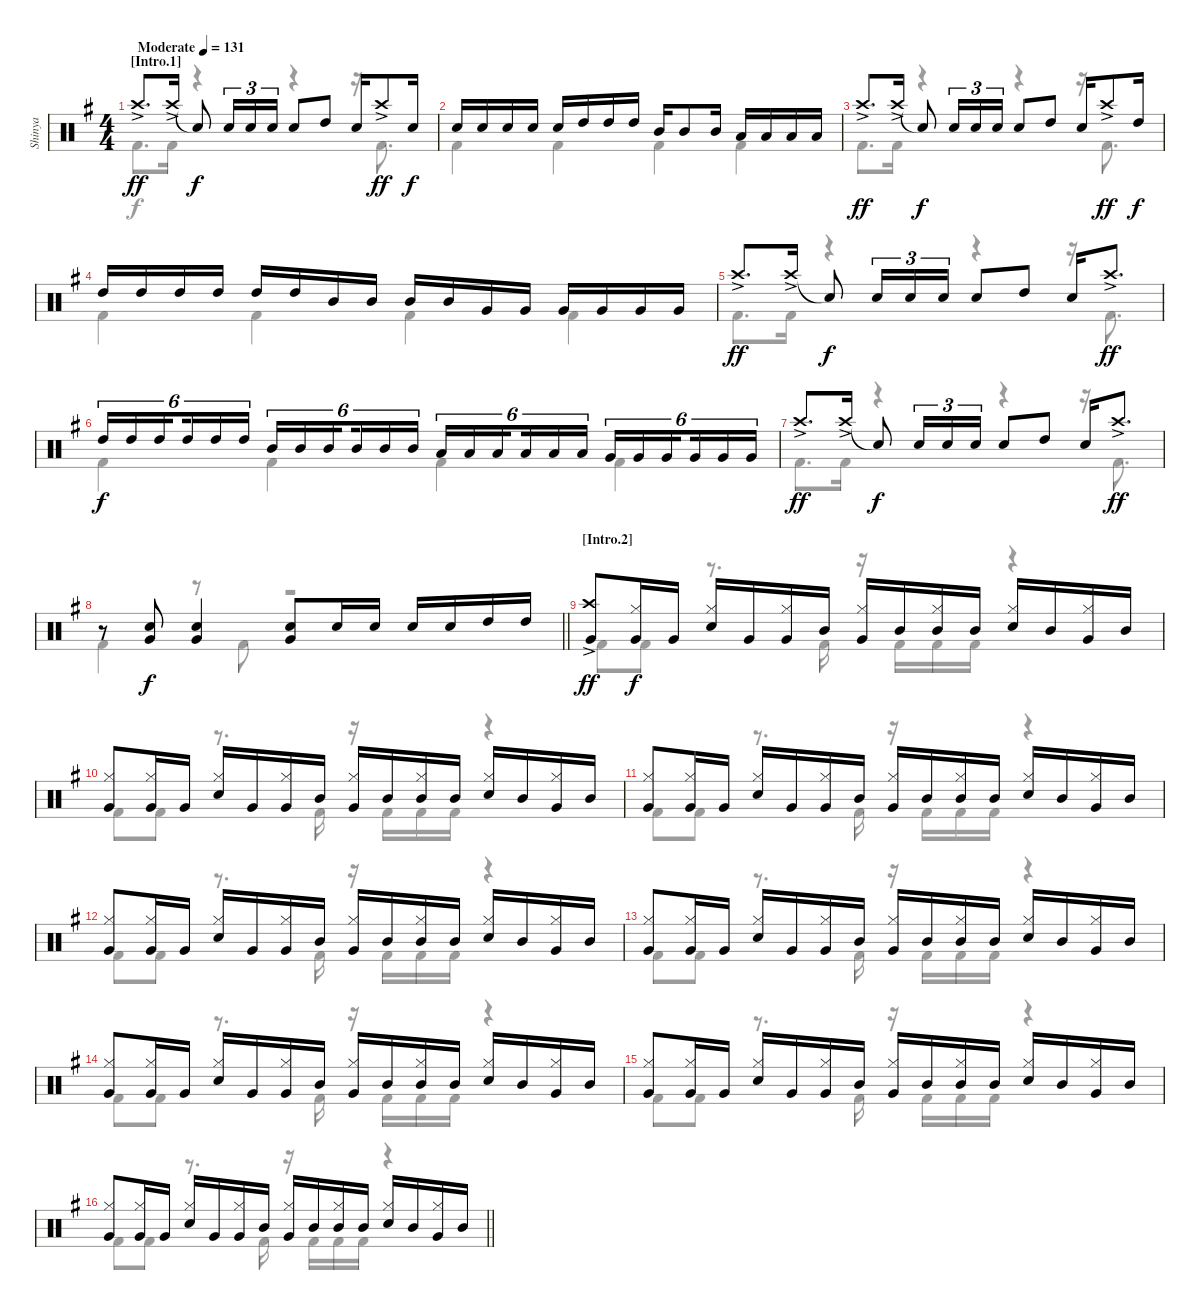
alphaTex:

\track ("Shinya" "Shinya") {instrument percussion}
\staff {score}
\articulation defaults
\voice
\ts (4 4)
\section ("" "[Intro.1]")
\tempo (131 "Moderate")
\clef neutral
\ks eminor "Crash high (hit)"{ac}.8{d dy ff} "Crash high (hit)"{ac}.16 "Snare (hit)"{t}.8{dy f} "Snare (hit) 2".16{tu (3 2)} "Snare (hit) 2".16{tu (3 2)} "Snare (hit) 2".16{tu (3 2)} "Snare (hit) 2".8 "High Tom (hit)".8 "Snare (hit) 2".16 "Crash high (hit)"{ac}.8{dy ff} "Snare (hit) 2".16{dy f}
|
"Snare (hit) 2".16 "Snare (hit) 2".16 "Snare (hit) 2".16 "Snare (hit) 2".16 "Snare (hit) 2".16 "High Tom (hit)".16 "High Tom (hit)".16 "High Tom (hit)".16 "Mid Tom (hit)".16 "Mid Tom (hit)".8 "Mid Tom (hit)".16 "Low Tom (hit)".16 "Low Tom (hit)".16 "Low Tom (hit)".16 "Low Tom (hit)".16 |
"Crash high (hit)"{ac}.8{d dy ff} "Crash high (hit)"{ac}.16 "Snare (hit)"{t}.8{dy f} "Snare (hit) 2".16{tu (3 2)} "Snare (hit) 2".16{tu (3 2)} "Snare (hit) 2".16{tu (3 2)} "Snare (hit) 2".8 "High Tom (hit)".8 "Snare (hit) 2".16 "Crash high (hit)"{ac}.8{dy ff} "High Tom (hit)".16{dy f} |
"High Tom (hit)".16 "High Tom (hit)".16 "High Tom (hit)".16 "High Tom (hit)".16 "High Tom (hit)".16 "High Tom (hit)".16 "Mid Tom (hit)".16 "Mid Tom (hit)".16 "Mid Tom (hit)".16 "Mid Tom (hit)".16 "Very Low Tom (hit)".16 "Very Low Tom (hit)".16 "Very Low Tom (hit)".16 "Very Low Tom (hit)".16 "Very Low Tom (hit)".16 "Very Low Tom (hit)".16 |
"Crash high (hit)"{ac}.8{d dy ff} "Crash high (hit)"{ac}.16 "Snare (hit)"{t}.8{dy f} "Snare (hit) 2".16{tu (3 2)} "Snare (hit) 2".16{tu (3 2)} "Snare (hit) 2".16{tu (3 2)} "Snare (hit) 2".8 "High Tom (hit)".8 "Snare (hit) 2".16 "Crash high (hit)"{ac}.8{d dy ff} |
"High Tom (hit)".16{tu (6 4) dy f} "High Tom (hit)".16{tu (6 4)} "High Tom (hit)".16{tu (6 4) beam splitsecondary} "High Tom (hit)".16{tu (6 4)} "High Tom (hit)".16{tu (6 4)} "High Tom (hit)".16{tu (6 4)} "Mid Tom (hit)".16{tu (6 4)} "Mid Tom (hit)".16{tu (6 4)} "Mid Tom (hit)".16{tu (6 4) beam splitsecondary} "Mid Tom (hit)".16{tu (6 4)} "Mid Tom (hit)".16{tu (6 4)} "Mid Tom (hit)".16{tu (6 4)} "Low Tom (hit)".16{tu (6 4)} "Low Tom (hit)".16{tu (6 4)} "Low Tom (hit)".16{tu (6 4) beam splitsecondary} "Low Tom (hit)".16{tu (6 4)} "Low Tom (hit)".16{tu (6 4)} "Low Tom (hit)".16{tu (6 4)} "Very Low Tom (hit)".16{tu (6 4)} "Very Low Tom (hit)".16{tu (6 4)} "Very Low Tom (hit)".16{tu (6 4) beam splitsecondary} "Very Low Tom (hit)".16{tu (6 4)} "Very Low Tom (hit)".16{tu (6 4)} "Very Low Tom (hit)".16{tu (6 4)} |
"Crash high (hit)"{ac}.8{d dy ff} "Crash high (hit)"{ac}.16 "Snare (hit)"{t}.8{dy f} "Snare (hit) 2".16{tu (3 2)} "Snare (hit) 2".16{tu (3 2)} "Snare (hit) 2".16{tu (3 2)} "Snare (hit) 2".8 "High Tom (hit)".8 "Snare (hit) 2".16 "Crash high (hit)"{ac}.8{d dy ff} |
\barLineRight lightlight
r.8 ("Snare (hit) 2" "Very Low Tom (hit)").8{dy f} ("Snare (hit) 2" "Very Low Tom (hit)").4 ("Snare (hit) 2" "Very Low Tom (hit)").8 "Snare (hit) 2".16 "Snare (hit) 2".16 "Snare (hit) 2".16 "Snare (hit) 2".16 "High Tom (hit)".16 "High Tom (hit)".16 |
\section ("" "[Intro.2]")
("Crash high (hit)"{ac} "Very Low Tom (hit)").8{dy ff} ("Hi-Hat (closed)" "Very Low Tom (hit)").16{dy f} "Very Low Tom (hit)".16 ("Hi-Hat (closed)" "Snare (hit) 2").16 "Very Low Tom (hit)".16 ("Hi-Hat (closed)" "Very Low Tom (hit)").16 "Mid Tom (hit)".16 ("Hi-Hat (closed)" "Very Low Tom (hit)").16 "Mid Tom (hit)".16 ("Hi-Hat (closed)" "Mid Tom (hit)").16 "Mid Tom (hit)".16 ("Hi-Hat (closed)" "Snare (hit) 2").16 "Mid Tom (hit)".16 ("Hi-Hat (closed)" "Very Low Tom (hit)").16 "Mid Tom (hit)".16 |
("Hi-Hat (closed)" "Very Low Tom (hit)").8 ("Hi-Hat (closed)" "Very Low Tom (hit)").16 "Very Low Tom (hit)".16 ("Hi-Hat (closed)" "Snare (hit) 2").16 "Very Low Tom (hit)".16 ("Hi-Hat (closed)" "Very Low Tom (hit)").16 "Mid Tom (hit)".16 ("Hi-Hat (closed)" "Very Low Tom (hit)").16 "Mid Tom (hit)".16 ("Hi-Hat (closed)" "Mid Tom (hit)").16 "Mid Tom (hit)".16 ("Hi-Hat (closed)" "Snare (hit) 2").16 "Mid Tom (hit)".16 ("Hi-Hat (closed)" "Very Low Tom (hit)").16 "Mid Tom (hit)".16 |
("Hi-Hat (closed)" "Very Low Tom (hit)").8 ("Hi-Hat (closed)" "Very Low Tom (hit)").16 "Very Low Tom (hit)".16 ("Hi-Hat (closed)" "Snare (hit) 2").16 "Very Low Tom (hit)".16 ("Hi-Hat (closed)" "Very Low Tom (hit)").16 "Mid Tom (hit)".16 ("Hi-Hat (closed)" "Very Low Tom (hit)").16 "Mid Tom (hit)".16 ("Hi-Hat (closed)" "Mid Tom (hit)").16 "Mid Tom (hit)".16 ("Hi-Hat (closed)" "Snare (hit) 2").16 "Mid Tom (hit)".16 ("Hi-Hat (closed)" "Very Low Tom (hit)").16 "Mid Tom (hit)".16 |
("Hi-Hat (closed)" "Very Low Tom (hit)").8 ("Hi-Hat (closed)" "Very Low Tom (hit)").16 "Very Low Tom (hit)".16 ("Hi-Hat (closed)" "Snare (hit) 2").16 "Very Low Tom (hit)".16 ("Hi-Hat (closed)" "Very Low Tom (hit)").16 "Mid Tom (hit)".16 ("Hi-Hat (closed)" "Very Low Tom (hit)").16 "Mid Tom (hit)".16 ("Hi-Hat (closed)" "Mid Tom (hit)").16 "Mid Tom (hit)".16 ("Hi-Hat (closed)" "Snare (hit) 2").16 "Mid Tom (hit)".16 ("Hi-Hat (closed)" "Very Low Tom (hit)").16 "Mid Tom (hit)".16 |
("Hi-Hat (closed)" "Very Low Tom (hit)").8 ("Hi-Hat (closed)" "Very Low Tom (hit)").16 "Very Low Tom (hit)".16 ("Hi-Hat (closed)" "Snare (hit) 2").16 "Very Low Tom (hit)".16 ("Hi-Hat (closed)" "Very Low Tom (hit)").16 "Mid Tom (hit)".16 ("Hi-Hat (closed)" "Very Low Tom (hit)").16 "Mid Tom (hit)".16 ("Hi-Hat (closed)" "Mid Tom (hit)").16 "Mid Tom (hit)".16 ("Hi-Hat (closed)" "Snare (hit) 2").16 "Mid Tom (hit)".16 ("Hi-Hat (closed)" "Very Low Tom (hit)").16 "Mid Tom (hit)".16 |
("Hi-Hat (closed)" "Very Low Tom (hit)").8 ("Hi-Hat (closed)" "Very Low Tom (hit)").16 "Very Low Tom (hit)".16 ("Hi-Hat (closed)" "Snare (hit) 2").16 "Very Low Tom (hit)".16 ("Hi-Hat (closed)" "Very Low Tom (hit)").16 "Mid Tom (hit)".16 ("Hi-Hat (closed)" "Very Low Tom (hit)").16 "Mid Tom (hit)".16 ("Hi-Hat (closed)" "Mid Tom (hit)").16 "Mid Tom (hit)".16 ("Hi-Hat (closed)" "Snare (hit) 2").16 "Mid Tom (hit)".16 ("Hi-Hat (closed)" "Very Low Tom (hit)").16 "Mid Tom (hit)".16 |
("Hi-Hat (closed)" "Very Low Tom (hit)").8 ("Hi-Hat (closed)" "Very Low Tom (hit)").16 "Very Low Tom (hit)".16 ("Hi-Hat (closed)" "Snare (hit) 2").16 "Very Low Tom (hit)".16 ("Hi-Hat (closed)" "Very Low Tom (hit)").16 "Mid Tom (hit)".16 ("Hi-Hat (closed)" "Very Low Tom (hit)").16 "Mid Tom (hit)".16 ("Hi-Hat (closed)" "Mid Tom (hit)").16 "Mid Tom (hit)".16 ("Hi-Hat (closed)" "Snare (hit) 2").16 "Mid Tom (hit)".16 ("Hi-Hat (closed)" "Very Low Tom (hit)").16 "Mid Tom (hit)".16 |
\barLineRight lightlight
("Hi-Hat (closed)" "Very Low Tom (hit)").8 ("Hi-Hat (closed)" "Very Low Tom (hit)").16 "Very Low Tom (hit)".16 ("Hi-Hat (closed)" "Snare (hit) 2").16 "Very Low Tom (hit)".16 ("Hi-Hat (closed)" "Very Low Tom (hit)").16 "Mid Tom (hit)".16 ("Hi-Hat (closed)" "Very Low Tom (hit)").16 "Mid Tom (hit)".16 ("Hi-Hat (closed)" "Mid Tom (hit)").16 "Mid Tom (hit)".16 ("Hi-Hat (closed)" "Snare (hit) 2").16 "Mid Tom (hit)".16 ("Hi-Hat (closed)" "Very Low Tom (hit)").16 "Mid Tom (hit)".16
\voice
\clef neutral
\ottava regular
\simile none
\ks eminor "Kick (hit) 2".8{d dy f} "Kick (hit) 2".16
r.4 r.4 r.16 "Kick (hit) 2".8{d} |
"Kick (hit) 2".4 "Kick (hit) 2".4 "Kick (hit) 2".4 "Kick (hit) 2".4 |
"Kick (hit) 2".8{d} "Kick (hit) 2".16 r.4 r.4 r.16 "Kick (hit) 2".8{d} |
"Kick (hit) 2".4 "Kick (hit) 2".4 "Kick (hit) 2".4 "Kick (hit) 2".4 |
"Kick (hit) 2".8{d} "Kick (hit) 2".16 r.4 r.4 r.16 "Kick (hit) 2".8{d} |
"Kick (hit) 2".4 "Kick (hit) 2".4 "Kick (hit) 2".4 "Kick (hit) 2".4 |
"Kick (hit) 2".8{d} "Kick (hit) 2".16 r.4 r.4 r.16 "Kick (hit) 2".8{d} |
\barLineRight lightlight "Kick (hit) 2".4
r.8 "Kick (hit) 2".8 r.2 |
"Kick (hit) 2".8 "Kick (hit) 2".8 r.8{d} "Kick (hit) 2".16 r.16 "Kick (hit) 2".16 "Kick (hit) 2".16 "Kick (hit) 2".16 r.4 |
"Kick (hit) 2".8 "Kick (hit) 2".8 r.8{d} "Kick (hit) 2".16 r.16 "Kick (hit) 2".16 "Kick (hit) 2".16 "Kick (hit) 2".16 r.4 |
"Kick (hit) 2".8 "Kick (hit) 2".8 r.8{d} "Kick (hit) 2".16 r.16 "Kick (hit) 2".16 "Kick (hit) 2".16 "Kick (hit) 2".16 r.4 |
"Kick (hit) 2".8 "Kick (hit) 2".8 r.8{d} "Kick (hit) 2".16 r.16 "Kick (hit) 2".16 "Kick (hit) 2".16 "Kick (hit) 2".16 r.4 |
"Kick (hit) 2".8 "Kick (hit) 2".8 r.8{d} "Kick (hit) 2".16 r.16 "Kick (hit) 2".16 "Kick (hit) 2".16 "Kick (hit) 2".16 r.4 |
"Kick (hit) 2".8 "Kick (hit) 2".8 r.8{d} "Kick (hit) 2".16 r.16 "Kick (hit) 2".16 "Kick (hit) 2".16 "Kick (hit) 2".16 r.4 |
"Kick (hit) 2".8 "Kick (hit) 2".8 r.8{d} "Kick (hit) 2".16 r.16 "Kick (hit) 2".16 "Kick (hit) 2".16 "Kick (hit) 2".16 r.4 |
\barLineRight lightlight "Kick (hit) 2".8 "Kick (hit) 2".8
r.8{d} "Kick (hit) 2".16 r.16 "Kick (hit) 2".16 "Kick (hit) 2".16 "Kick (hit) 2".16 r.4
